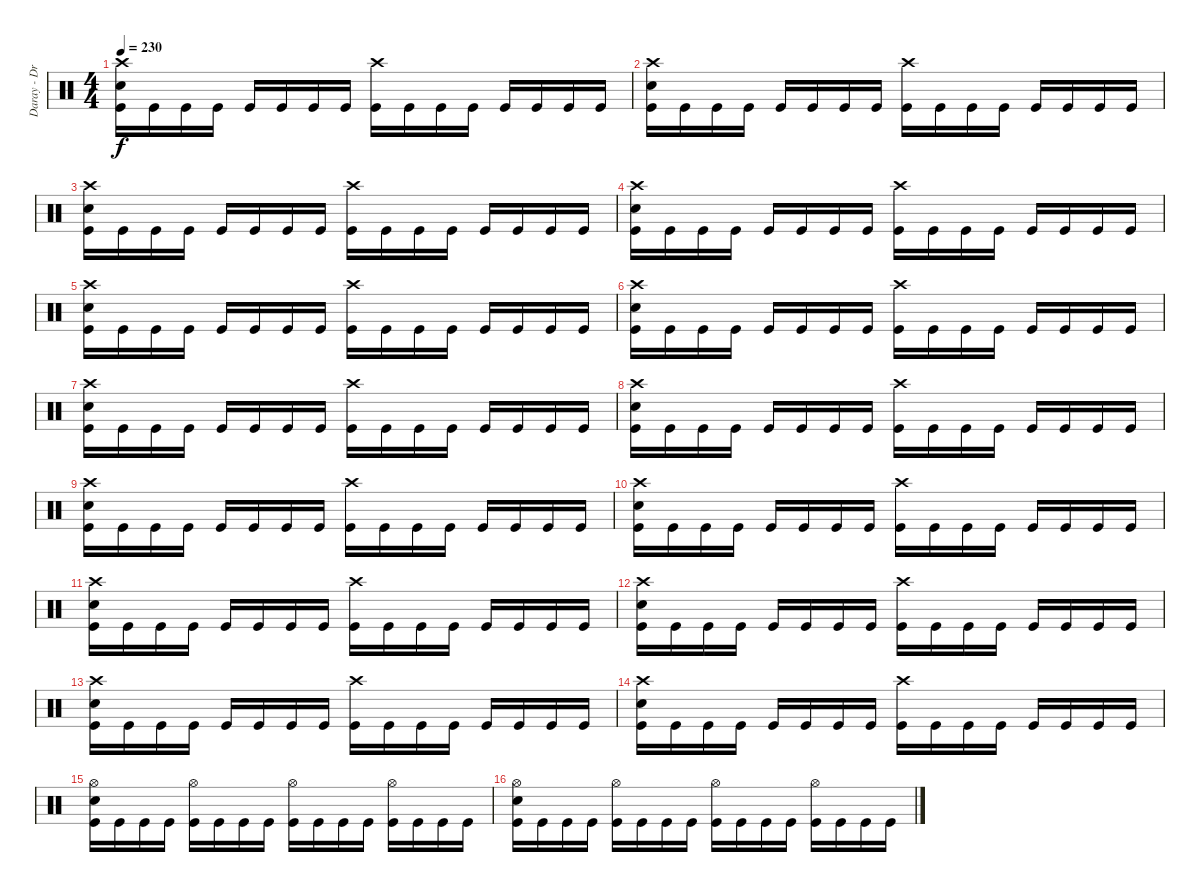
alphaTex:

\track ("Daray - Drums" "Daray - Dr") {instrument percussion}
\staff {score}
\articulation defaults
\ts (4 4)
\tempo 230
\clef neutral
\ks c
("Crash high (hit)" "Electric Snare (hit)" "Kick (hit)").16{dy f} "Kick (hit)".16 "Kick (hit)".16 "Kick (hit)".16 "Kick (hit)".16 "Kick (hit)".16 "Kick (hit)".16 "Kick (hit)".16 ("Crash high (hit)" "Kick (hit)").16 "Kick (hit)".16 "Kick (hit)".16 "Kick (hit)".16 "Kick (hit)".16 "Kick (hit)".16 "Kick (hit)".16 "Kick (hit)".16 |
("Crash high (hit)" "Electric Snare (hit)" "Kick (hit)").16 "Kick (hit)".16 "Kick (hit)".16 "Kick (hit)".16 "Kick (hit)".16 "Kick (hit)".16 "Kick (hit)".16 "Kick (hit)".16 ("Crash high (hit)" "Kick (hit)").16 "Kick (hit)".16 "Kick (hit)".16 "Kick (hit)".16 "Kick (hit)".16 "Kick (hit)".16 "Kick (hit)".16 "Kick (hit)".16 |
("Crash high (hit)" "Electric Snare (hit)" "Kick (hit)").16 "Kick (hit)".16 "Kick (hit)".16 "Kick (hit)".16 "Kick (hit)".16 "Kick (hit)".16 "Kick (hit)".16 "Kick (hit)".16 ("Crash high (hit)" "Kick (hit)").16 "Kick (hit)".16 "Kick (hit)".16 "Kick (hit)".16 "Kick (hit)".16 "Kick (hit)".16 "Kick (hit)".16 "Kick (hit)".16 |
("Crash high (hit)" "Electric Snare (hit)" "Kick (hit)").16 "Kick (hit)".16 "Kick (hit)".16 "Kick (hit)".16 "Kick (hit)".16 "Kick (hit)".16 "Kick (hit)".16 "Kick (hit)".16 ("Crash high (hit)" "Kick (hit)").16 "Kick (hit)".16 "Kick (hit)".16 "Kick (hit)".16 "Kick (hit)".16 "Kick (hit)".16 "Kick (hit)".16 "Kick (hit)".16 |
("Crash high (hit)" "Electric Snare (hit)" "Kick (hit)").16 "Kick (hit)".16 "Kick (hit)".16 "Kick (hit)".16 "Kick (hit)".16 "Kick (hit)".16 "Kick (hit)".16 "Kick (hit)".16 ("Crash high (hit)" "Kick (hit)").16 "Kick (hit)".16 "Kick (hit)".16 "Kick (hit)".16 "Kick (hit)".16 "Kick (hit)".16 "Kick (hit)".16 "Kick (hit)".16 |
("Crash high (hit)" "Electric Snare (hit)" "Kick (hit)").16 "Kick (hit)".16 "Kick (hit)".16 "Kick (hit)".16 "Kick (hit)".16 "Kick (hit)".16 "Kick (hit)".16 "Kick (hit)".16 ("Crash high (hit)" "Kick (hit)").16 "Kick (hit)".16 "Kick (hit)".16 "Kick (hit)".16 "Kick (hit)".16 "Kick (hit)".16 "Kick (hit)".16 "Kick (hit)".16 |
("Crash high (hit)" "Electric Snare (hit)" "Kick (hit)").16 "Kick (hit)".16 "Kick (hit)".16 "Kick (hit)".16 "Kick (hit)".16 "Kick (hit)".16 "Kick (hit)".16 "Kick (hit)".16 ("Crash high (hit)" "Kick (hit)").16 "Kick (hit)".16 "Kick (hit)".16 "Kick (hit)".16 "Kick (hit)".16 "Kick (hit)".16 "Kick (hit)".16 "Kick (hit)".16 |
("Crash high (hit)" "Electric Snare (hit)" "Kick (hit)").16 "Kick (hit)".16 "Kick (hit)".16 "Kick (hit)".16 "Kick (hit)".16 "Kick (hit)".16 "Kick (hit)".16 "Kick (hit)".16 ("Crash high (hit)" "Kick (hit)").16 "Kick (hit)".16 "Kick (hit)".16 "Kick (hit)".16 "Kick (hit)".16 "Kick (hit)".16 "Kick (hit)".16 "Kick (hit)".16 |
("Crash high (hit)" "Electric Snare (hit)" "Kick (hit)").16 "Kick (hit)".16 "Kick (hit)".16 "Kick (hit)".16 "Kick (hit)".16 "Kick (hit)".16 "Kick (hit)".16 "Kick (hit)".16 ("Crash high (hit)" "Kick (hit)").16 "Kick (hit)".16 "Kick (hit)".16 "Kick (hit)".16 "Kick (hit)".16 "Kick (hit)".16 "Kick (hit)".16 "Kick (hit)".16 |
("Crash high (hit)" "Electric Snare (hit)" "Kick (hit)").16 "Kick (hit)".16 "Kick (hit)".16 "Kick (hit)".16 "Kick (hit)".16 "Kick (hit)".16 "Kick (hit)".16 "Kick (hit)".16 ("Crash high (hit)" "Kick (hit)").16 "Kick (hit)".16 "Kick (hit)".16 "Kick (hit)".16 "Kick (hit)".16 "Kick (hit)".16 "Kick (hit)".16 "Kick (hit)".16 |
("Crash high (hit)" "Electric Snare (hit)" "Kick (hit)").16 "Kick (hit)".16 "Kick (hit)".16 "Kick (hit)".16 "Kick (hit)".16 "Kick (hit)".16 "Kick (hit)".16 "Kick (hit)".16 ("Crash high (hit)" "Kick (hit)").16 "Kick (hit)".16 "Kick (hit)".16 "Kick (hit)".16 "Kick (hit)".16 "Kick (hit)".16 "Kick (hit)".16 "Kick (hit)".16 |
("Crash high (hit)" "Electric Snare (hit)" "Kick (hit)").16 "Kick (hit)".16 "Kick (hit)".16 "Kick (hit)".16 "Kick (hit)".16 "Kick (hit)".16 "Kick (hit)".16 "Kick (hit)".16 ("Crash high (hit)" "Kick (hit)").16 "Kick (hit)".16 "Kick (hit)".16 "Kick (hit)".16 "Kick (hit)".16 "Kick (hit)".16 "Kick (hit)".16 "Kick (hit)".16 |
("Crash high (hit)" "Electric Snare (hit)" "Kick (hit)").16 "Kick (hit)".16 "Kick (hit)".16 "Kick (hit)".16 "Kick (hit)".16 "Kick (hit)".16 "Kick (hit)".16 "Kick (hit)".16 ("Crash high (hit)" "Kick (hit)").16 "Kick (hit)".16 "Kick (hit)".16 "Kick (hit)".16 "Kick (hit)".16 "Kick (hit)".16 "Kick (hit)".16 "Kick (hit)".16 |
("Crash high (hit)" "Electric Snare (hit)" "Kick (hit)").16 "Kick (hit)".16 "Kick (hit)".16 "Kick (hit)".16 "Kick (hit)".16 "Kick (hit)".16 "Kick (hit)".16 "Kick (hit)".16 ("Crash high (hit)" "Kick (hit)").16 "Kick (hit)".16 "Kick (hit)".16 "Kick (hit)".16 "Kick (hit)".16 "Kick (hit)".16 "Kick (hit)".16 "Kick (hit)".16 |
("Hi-Hat (open)" "Electric Snare (hit)" "Kick (hit)").16 "Kick (hit)".16 "Kick (hit)".16 "Kick (hit)".16 ("Hi-Hat (open)" "Kick (hit)").16 "Kick (hit)".16 "Kick (hit)".16 "Kick (hit)".16 ("Hi-Hat (open)" "Kick (hit)").16 "Kick (hit)".16 "Kick (hit)".16 "Kick (hit)".16 ("Hi-Hat (open)" "Kick (hit)").16 "Kick (hit)".16 "Kick (hit)".16 "Kick (hit)".16 |
("Hi-Hat (open)" "Electric Snare (hit)" "Kick (hit)").16 "Kick (hit)".16 "Kick (hit)".16 "Kick (hit)".16 ("Hi-Hat (open)" "Kick (hit)").16 "Kick (hit)".16 "Kick (hit)".16 "Kick (hit)".16 ("Hi-Hat (open)" "Kick (hit)").16 "Kick (hit)".16 "Kick (hit)".16 "Kick (hit)".16 ("Hi-Hat (open)" "Kick (hit)").16 "Kick (hit)".16 "Kick (hit)".16 "Kick (hit)".16
